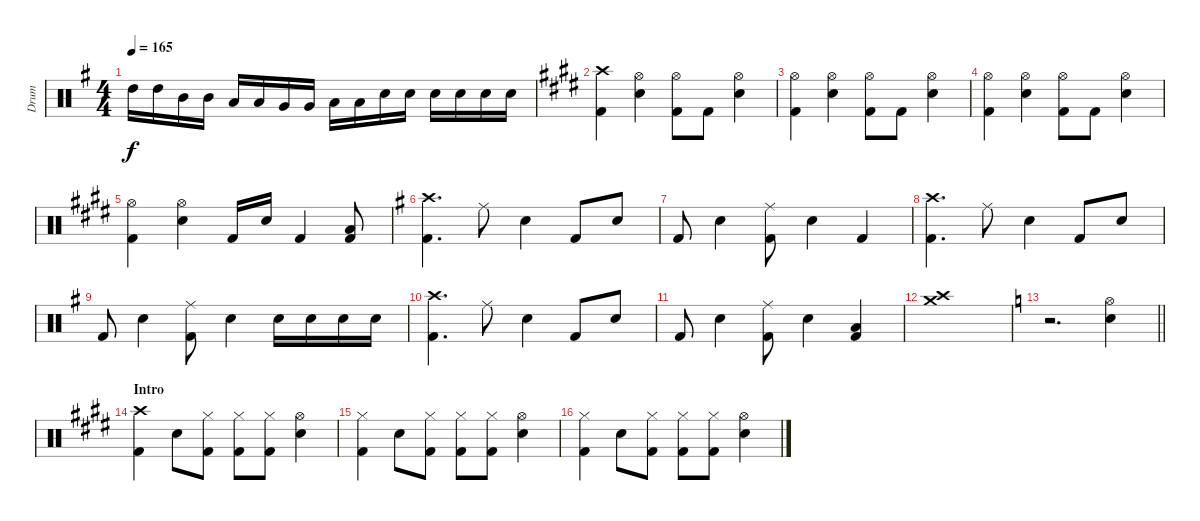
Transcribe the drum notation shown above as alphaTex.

\track ("Drum" "Drum") {instrument percussion}
\staff {score}
\articulation defaults
\ts (4 4)
\tempo 165
\clef neutral
\ks g "High Tom (hit)".16{dy f} "High Tom (hit)".16 "Mid Tom (hit)".16 "Mid Tom (hit)".16 "Low Tom (hit)".16 "Low Tom (hit)".16 "Very Low Tom (hit)".16 "Very Low Tom (hit)".16 "Low Floor Tom (hit)".16 "Low Floor Tom (hit)".16 "Electric Snare (hit)".16 "Electric Snare (hit)".16 "Electric Snare (hit)".16 "Electric Snare (hit)".16 "Electric Snare (hit)".16 "Electric Snare (hit)".16
|
\ks e
("Crash high (hit)" "Kick (hit) 2").4 ("Hi-Hat (open)" "Electric Snare (hit)").4 ("Hi-Hat (open)" "Kick (hit) 2").8 "Kick (hit) 2".8 ("Hi-Hat (open)" "Electric Snare (hit)").4 |
("Hi-Hat (open)" "Kick (hit) 2").4 ("Hi-Hat (open)" "Electric Snare (hit)").4 ("Hi-Hat (open)" "Kick (hit) 2").8 "Kick (hit) 2".8 ("Hi-Hat (open)" "Electric Snare (hit)").4 |
("Hi-Hat (open)" "Kick (hit) 2").4 ("Hi-Hat (open)" "Electric Snare (hit)").4 ("Hi-Hat (open)" "Kick (hit) 2").8 "Kick (hit) 2".8 ("Hi-Hat (open)" "Electric Snare (hit)").4 |
("Hi-Hat (open)" "Kick (hit) 2").4 ("Hi-Hat (open)" "Electric Snare (hit)").4 "Kick (hit) 2".16 "Electric Snare (hit)".16 "Kick (hit) 2".4 ("Low Floor Tom (hit)" "Kick (hit) 2").8 |
\ks g
("Crash high (hit)" "Kick (hit) 2").4{d} "Ride (middle)".8 "Electric Snare (hit)".4 "Kick (hit) 2".8 "Electric Snare (hit)".8 |
"Kick (hit) 2".8 "Electric Snare (hit)".4 ("Ride (middle)" "Kick (hit) 2").8 "Electric Snare (hit)".4 "Kick (hit) 2".4 |
("Crash high (hit)" "Kick (hit) 2").4{d} "Ride (middle)".8 "Electric Snare (hit)".4 "Kick (hit) 2".8 "Electric Snare (hit)".8 |
"Kick (hit) 2".8 "Electric Snare (hit)".4 ("Ride (middle)" "Kick (hit) 2").8 "Electric Snare (hit)".4 "Electric Snare (hit)".16 "Electric Snare (hit)".16 "Electric Snare (hit)".16 "Electric Snare (hit)".16 |
("Crash high (hit)" "Kick (hit) 2").4{d} "Ride (middle)".8 "Electric Snare (hit)".4 "Kick (hit) 2".8 "Electric Snare (hit)".8 |
"Kick (hit) 2".8 "Electric Snare (hit)".4 ("Ride (middle)" "Kick (hit) 2").8 "Electric Snare (hit)".4 ("Low Floor Tom (hit)" "Kick (hit) 2").4 |
("Crash high (hit)" "Crash medium (hit)").1 |
\barLineRight lightlight
\ks c
r.2{d} ("Hi-Hat (open)" "Electric Snare (hit)").4 |
\section ("" "Intro")
\ks e
("Crash high (hit)" "Kick (hit) 2").4 "Electric Snare (hit)".8 ("Hi-Hat (closed)" "Kick (hit) 2").8 ("Hi-Hat (closed)" "Kick (hit) 2").8 ("Hi-Hat (closed)" "Kick (hit) 2").8 ("Hi-Hat (open)" "Electric Snare (hit)").4 |
("Hi-Hat (closed)" "Kick (hit) 2").4 "Electric Snare (hit)".8 ("Hi-Hat (closed)" "Kick (hit) 2").8 ("Hi-Hat (closed)" "Kick (hit) 2").8 ("Hi-Hat (closed)" "Kick (hit) 2").8 ("Hi-Hat (open)" "Electric Snare (hit)").4 |
("Hi-Hat (closed)" "Kick (hit) 2").4 "Electric Snare (hit)".8 ("Hi-Hat (closed)" "Kick (hit) 2").8 ("Hi-Hat (closed)" "Kick (hit) 2").8 ("Hi-Hat (closed)" "Kick (hit) 2").8 ("Hi-Hat (open)" "Electric Snare (hit)").4
